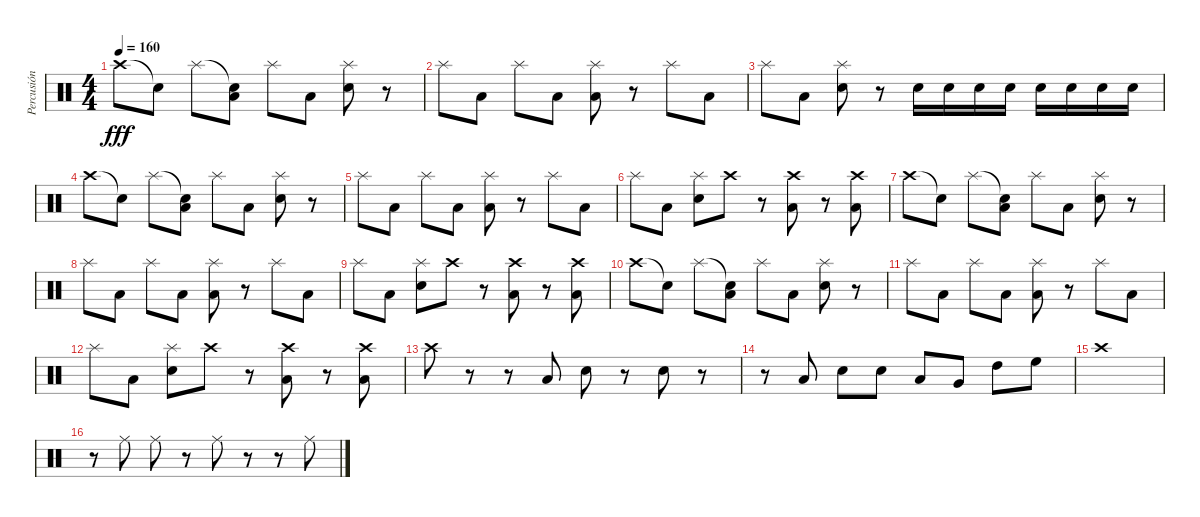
\track ("Percusión" "Percusión") {instrument percussion}
\staff {score}
\articulation defaults
\ts (4 4)
\tempo 160
\clef neutral
\ks c "Crash high (hit)".8{dy fff} "Snare (hit)"{t}.8 "Splash (hit)".8
("Snare (hit)"{t} "Low Tom (hit)").8 "Splash (hit)".8 "Low Tom (hit)".8 ("Splash (hit)" "Snare (hit) 2").8 r.8 |
"Splash (hit)".8 "Low Tom (hit)".8 "Splash (hit)".8 "Low Tom (hit)".8 ("Splash (hit)" "Low Tom (hit)").8 r.8 "Splash (hit)".8 "Low Tom (hit)".8 |
"Splash (hit)".8 "Low Tom (hit)".8 ("Splash (hit)" "Snare (hit) 2").8 r.8 "Snare (hit) 2".16 "Snare (hit) 2".16 "Snare (hit) 2".16 "Snare (hit) 2".16 "Snare (hit) 2".16 "Snare (hit) 2".16 "Snare (hit) 2".16 "Snare (hit) 2".16 |
"Crash high (hit)".8 "Snare (hit)"{t}.8 "Splash (hit)".8 ("Snare (hit)"{t} "Low Tom (hit)").8 "Splash (hit)".8 "Low Tom (hit)".8 ("Splash (hit)" "Snare (hit) 2").8 r.8 |
"Splash (hit)".8 "Low Tom (hit)".8 "Splash (hit)".8 "Low Tom (hit)".8 ("Splash (hit)" "Low Tom (hit)").8 r.8 "Splash (hit)".8 "Low Tom (hit)".8 |
"Splash (hit)".8 "Low Tom (hit)".8 ("Splash (hit)" "Snare (hit) 2").8 "Crash high (hit)".8 r.8 ("Crash high (hit)" "Low Tom (hit)").8 r.8 ("Crash high (hit)" "Low Tom (hit)").8 |
"Crash high (hit)".8 "Snare (hit)"{t}.8 "Splash (hit)".8 ("Snare (hit)"{t} "Low Tom (hit)").8 "Splash (hit)".8 "Low Tom (hit)".8 ("Splash (hit)" "Snare (hit) 2").8 r.8 |
"Splash (hit)".8 "Low Tom (hit)".8 "Splash (hit)".8 "Low Tom (hit)".8 ("Splash (hit)" "Low Tom (hit)").8 r.8 "Splash (hit)".8 "Low Tom (hit)".8 |
"Splash (hit)".8 "Low Tom (hit)".8 ("Splash (hit)" "Snare (hit) 2").8 "Crash high (hit)".8 r.8 ("Crash high (hit)" "Low Tom (hit)").8 r.8 ("Crash high (hit)" "Low Tom (hit)").8 |
"Crash high (hit)".8 "Snare (hit)"{t}.8 "Splash (hit)".8 ("Snare (hit)"{t} "Low Tom (hit)").8 "Splash (hit)".8 "Low Tom (hit)".8 ("Splash (hit)" "Snare (hit) 2").8 r.8 |
"Splash (hit)".8 "Low Tom (hit)".8 "Splash (hit)".8 "Low Tom (hit)".8 ("Splash (hit)" "Low Tom (hit)").8 r.8 "Splash (hit)".8 "Low Tom (hit)".8 |
"Splash (hit)".8 "Low Tom (hit)".8 ("Splash (hit)" "Snare (hit) 2").8 "Crash high (hit)".8 r.8 ("Crash high (hit)" "Low Tom (hit)").8 r.8 ("Crash high (hit)" "Low Tom (hit)").8 |
"Crash high (hit)".8 r.8 r.8 "Low Tom (hit)".8 "Snare (hit) 2".8 r.8 "Snare (hit) 2".8 r.8 |
r.8 "Low Tom (hit)".8 "Snare (hit) 2".8 "Snare (hit) 2".8 "Low Floor Tom (hit)".8 "Very Low Tom (hit)".8 "High Tom (hit)".8 "High Floor Tom (hit)".8 |
"Crash high (hit)".1 |
r.8 "Ride (middle)".8 "Ride (middle)".8 r.8 "Ride (middle)".8 r.8 r.8 "Ride (middle)".8
